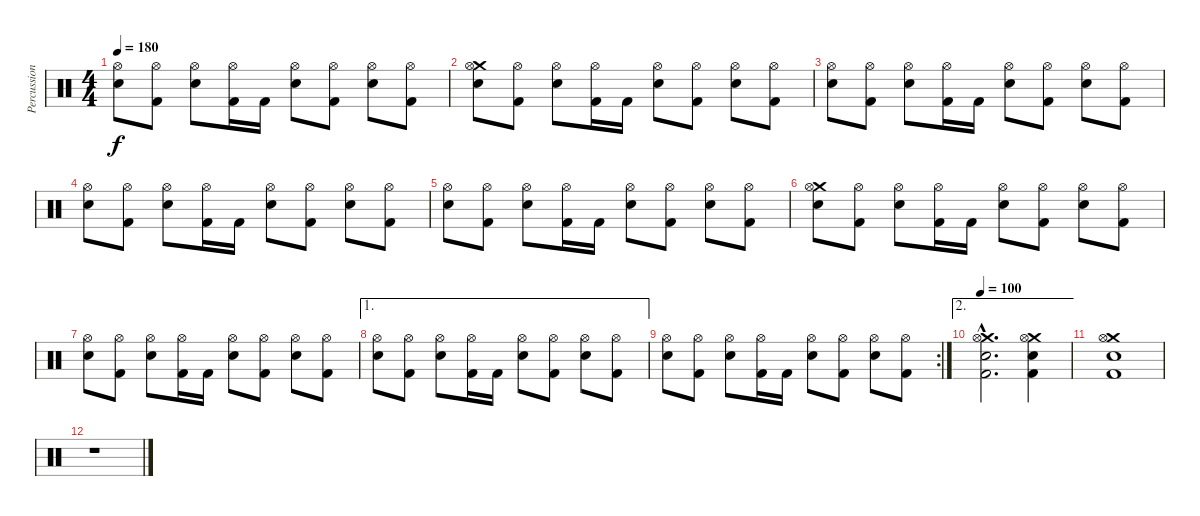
\track ("Percussion" "Percussion") {instrument percussion}
\staff {score}
\articulation defaults
\ts (4 4)
\tempo 180
\clef neutral
\ks c
("Hi-Hat (open)" "Electric Snare (hit)").8{dy f} ("Hi-Hat (open)" "Kick (hit) 2").8 ("Hi-Hat (open)" "Electric Snare (hit)").8 ("Hi-Hat (open)" "Kick (hit) 2").16 "Kick (hit) 2".16 ("Hi-Hat (open)" "Electric Snare (hit)").8 ("Hi-Hat (open)" "Kick (hit) 2").8 ("Hi-Hat (open)" "Electric Snare (hit)").8 ("Hi-Hat (open)" "Kick (hit) 2").8 |
("Crash medium (hit)" "Hi-Hat (open)" "Electric Snare (hit)").8 ("Hi-Hat (open)" "Kick (hit) 2").8 ("Hi-Hat (open)" "Electric Snare (hit)").8 ("Hi-Hat (open)" "Kick (hit) 2").16 "Kick (hit) 2".16 ("Hi-Hat (open)" "Electric Snare (hit)").8 ("Hi-Hat (open)" "Kick (hit) 2").8 ("Hi-Hat (open)" "Electric Snare (hit)").8 ("Hi-Hat (open)" "Kick (hit) 2").8 |
("Hi-Hat (open)" "Electric Snare (hit)").8 ("Hi-Hat (open)" "Kick (hit) 2").8 ("Hi-Hat (open)" "Electric Snare (hit)").8 ("Hi-Hat (open)" "Kick (hit) 2").16 "Kick (hit) 2".16 ("Hi-Hat (open)" "Electric Snare (hit)").8 ("Hi-Hat (open)" "Kick (hit) 2").8 ("Hi-Hat (open)" "Electric Snare (hit)").8 ("Hi-Hat (open)" "Kick (hit) 2").8 |
("Hi-Hat (open)" "Electric Snare (hit)").8 ("Hi-Hat (open)" "Kick (hit) 2").8 ("Hi-Hat (open)" "Electric Snare (hit)").8 ("Hi-Hat (open)" "Kick (hit) 2").16 "Kick (hit) 2".16 ("Hi-Hat (open)" "Electric Snare (hit)").8 ("Hi-Hat (open)" "Kick (hit) 2").8 ("Hi-Hat (open)" "Electric Snare (hit)").8 ("Hi-Hat (open)" "Kick (hit) 2").8 |
("Hi-Hat (open)" "Electric Snare (hit)").8 ("Hi-Hat (open)" "Kick (hit) 2").8 ("Hi-Hat (open)" "Electric Snare (hit)").8 ("Hi-Hat (open)" "Kick (hit) 2").16 "Kick (hit) 2".16 ("Hi-Hat (open)" "Electric Snare (hit)").8 ("Hi-Hat (open)" "Kick (hit) 2").8 ("Hi-Hat (open)" "Electric Snare (hit)").8 ("Hi-Hat (open)" "Kick (hit) 2").8 |
("Crash medium (hit)" "Hi-Hat (open)" "Electric Snare (hit)").8 ("Hi-Hat (open)" "Kick (hit) 2").8 ("Hi-Hat (open)" "Electric Snare (hit)").8 ("Hi-Hat (open)" "Kick (hit) 2").16 "Kick (hit) 2".16 ("Hi-Hat (open)" "Electric Snare (hit)").8 ("Hi-Hat (open)" "Kick (hit) 2").8 ("Hi-Hat (open)" "Electric Snare (hit)").8 ("Hi-Hat (open)" "Kick (hit) 2").8 |
("Hi-Hat (open)" "Electric Snare (hit)").8 ("Hi-Hat (open)" "Kick (hit) 2").8 ("Hi-Hat (open)" "Electric Snare (hit)").8 ("Hi-Hat (open)" "Kick (hit) 2").16 "Kick (hit) 2".16 ("Hi-Hat (open)" "Electric Snare (hit)").8 ("Hi-Hat (open)" "Kick (hit) 2").8 ("Hi-Hat (open)" "Electric Snare (hit)").8 ("Hi-Hat (open)" "Kick (hit) 2").8 |
\ae 1
("Hi-Hat (open)" "Electric Snare (hit)").8 ("Hi-Hat (open)" "Kick (hit) 2").8 ("Hi-Hat (open)" "Electric Snare (hit)").8 ("Hi-Hat (open)" "Kick (hit) 2").16 "Kick (hit) 2".16 ("Hi-Hat (open)" "Electric Snare (hit)").8 ("Hi-Hat (open)" "Kick (hit) 2").8 ("Hi-Hat (open)" "Electric Snare (hit)").8 ("Hi-Hat (open)" "Kick (hit) 2").8 |
\rc 2
("Hi-Hat (open)" "Electric Snare (hit)").8 ("Hi-Hat (open)" "Kick (hit) 2").8 ("Hi-Hat (open)" "Electric Snare (hit)").8 ("Hi-Hat (open)" "Kick (hit) 2").16 "Kick (hit) 2".16 ("Hi-Hat (open)" "Electric Snare (hit)").8 ("Hi-Hat (open)" "Kick (hit) 2").8 ("Hi-Hat (open)" "Electric Snare (hit)").8 ("Hi-Hat (open)" "Kick (hit) 2").8 |
\ae 2
\tempo 100
("Crash medium (hit)"{hac} "Hi-Hat (open)"{hac} "Electric Snare (hit)"{hac} "Kick (hit) 2"{hac}).2{d} ("Crash medium (hit)" "Hi-Hat (open)" "Electric Snare (hit)" "Kick (hit) 2").4 |
("Crash medium (hit)" "Hi-Hat (open)" "Electric Snare (hit)" "Kick (hit) 2").1 |
r.1
